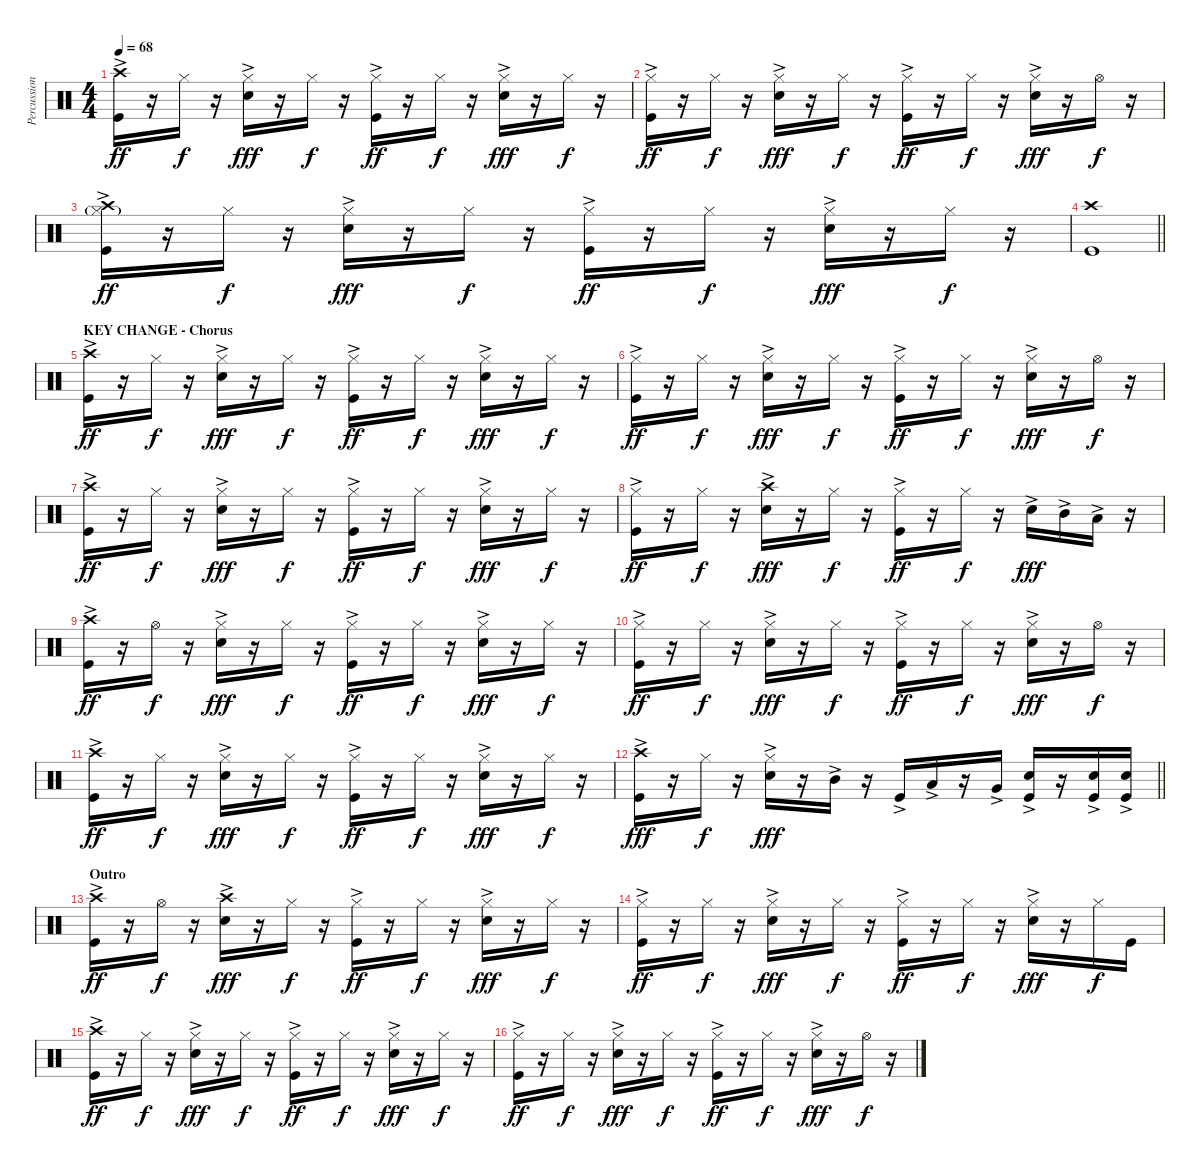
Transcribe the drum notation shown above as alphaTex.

\track ("Percussion" "Percussion") {instrument percussion}
\staff {score}
\articulation defaults
\ts (4 4)
\tempo 68
\clef neutral
\ks c
("Crash high (hit)" "Kick (hit)"{ac}).16{dy ff} r.16 "Hi-Hat (closed)".16{dy f} r.16 ("Hi-Hat (closed)" "Snare (hit) 2"{ac}).16{dy fff} r.16 "Hi-Hat (closed)".16{dy f} r.16 ("Hi-Hat (closed)" "Kick (hit)"{ac}).16{dy ff} r.16 "Hi-Hat (closed)".16{dy f} r.16 ("Hi-Hat (closed)" "Snare (hit) 2"{ac}).16{dy fff} r.16 "Hi-Hat (closed)".16{dy f} r.16 |
("Hi-Hat (closed)" "Kick (hit)"{ac}).16{dy ff} r.16 "Hi-Hat (closed)".16{dy f} r.16 ("Hi-Hat (closed)" "Snare (hit) 2"{ac}).16{dy fff} r.16 "Hi-Hat (closed)".16{dy f} r.16 ("Hi-Hat (closed)" "Kick (hit)"{ac}).16{dy ff} r.16 "Hi-Hat (closed)".16{dy f} r.16 ("Hi-Hat (closed)" "Snare (hit) 2"{ac}).16{dy fff} r.16 "Hi-Hat (open)".16{dy f} r.16 |
("Crash high (hit)" "Hi-Hat (closed)"{g} "Kick (hit)"{ac}).16{dy ff} r.16 "Hi-Hat (closed)".16{dy f} r.16 ("Hi-Hat (closed)" "Snare (hit) 2"{ac}).16{dy fff} r.16 "Hi-Hat (closed)".16{dy f} r.16 ("Hi-Hat (closed)" "Kick (hit)"{ac}).16{dy ff} r.16 "Hi-Hat (closed)".16{dy f} r.16 ("Hi-Hat (closed)" "Snare (hit) 2"{ac}).16{dy fff} r.16 "Hi-Hat (closed)".16{dy f} r.16 |
\barLineRight lightlight
("Crash high (hit)" "Kick (hit)").1 |
\section ("" "KEY CHANGE - Chorus")
("Crash high (hit)" "Kick (hit)"{ac}).16{dy ff} r.16 "Hi-Hat (closed)".16{dy f} r.16 ("Hi-Hat (closed)" "Snare (hit) 2"{ac}).16{dy fff} r.16 "Hi-Hat (closed)".16{dy f} r.16 ("Hi-Hat (closed)" "Kick (hit)"{ac}).16{dy ff} r.16 "Hi-Hat (closed)".16{dy f} r.16 ("Hi-Hat (closed)" "Snare (hit) 2"{ac}).16{dy fff} r.16 "Hi-Hat (closed)".16{dy f} r.16 |
("Hi-Hat (closed)" "Kick (hit)"{ac}).16{dy ff} r.16 "Hi-Hat (closed)".16{dy f} r.16 ("Hi-Hat (closed)" "Snare (hit) 2"{ac}).16{dy fff} r.16 "Hi-Hat (closed)".16{dy f} r.16 ("Hi-Hat (closed)" "Kick (hit)"{ac}).16{dy ff} r.16 "Hi-Hat (closed)".16{dy f} r.16 ("Hi-Hat (closed)" "Snare (hit) 2"{ac}).16{dy fff} r.16 "Hi-Hat (open)".16{dy f} r.16 |
("Crash high (hit)" "Kick (hit)"{ac}).16{dy ff} r.16 "Hi-Hat (closed)".16{dy f} r.16 ("Hi-Hat (closed)" "Snare (hit) 2"{ac}).16{dy fff} r.16 "Hi-Hat (closed)".16{dy f} r.16 ("Hi-Hat (closed)" "Kick (hit)"{ac}).16{dy ff} r.16 "Hi-Hat (closed)".16{dy f} r.16 ("Hi-Hat (closed)" "Snare (hit) 2"{ac}).16{dy fff} r.16 "Hi-Hat (closed)".16{dy f} r.16 |
("Hi-Hat (closed)" "Kick (hit)"{ac}).16{dy ff} r.16 "Hi-Hat (closed)".16{dy f} r.16 ("Crash high (hit)" "Snare (hit) 2"{ac}).16{dy fff} r.16 "Hi-Hat (closed)".16{dy f} r.16 ("Hi-Hat (closed)" "Kick (hit)"{ac}).16{dy ff} r.16 "Hi-Hat (closed)".16{dy f} r.16 "Snare (hit) 2"{ac}.16{dy fff} "Mid Tom (hit)"{ac}.16 "Low Tom (hit)"{ac}.16 r.16 |
("Crash high (hit)" "Kick (hit)"{ac}).16{dy ff} r.16 "Hi-Hat (open)".16{dy f} r.16 ("Hi-Hat (closed)" "Snare (hit) 2"{ac}).16{dy fff} r.16 "Hi-Hat (closed)".16{dy f} r.16 ("Hi-Hat (closed)" "Kick (hit)"{ac}).16{dy ff} r.16 "Hi-Hat (closed)".16{dy f} r.16 ("Hi-Hat (closed)" "Snare (hit) 2"{ac}).16{dy fff} r.16 "Hi-Hat (closed)".16{dy f} r.16 |
("Hi-Hat (closed)" "Kick (hit)"{ac}).16{dy ff} r.16 "Hi-Hat (closed)".16{dy f} r.16 ("Hi-Hat (closed)" "Snare (hit) 2"{ac}).16{dy fff} r.16 "Hi-Hat (closed)".16{dy f} r.16 ("Hi-Hat (closed)" "Kick (hit)"{ac}).16{dy ff} r.16 "Hi-Hat (closed)".16{dy f} r.16 ("Hi-Hat (closed)" "Snare (hit) 2"{ac}).16{dy fff} r.16 "Hi-Hat (open)".16{dy f} r.16 |
("Crash high (hit)" "Kick (hit)"{ac}).16{dy ff} r.16 "Hi-Hat (closed)".16{dy f} r.16 ("Hi-Hat (closed)" "Snare (hit) 2"{ac}).16{dy fff} r.16 "Hi-Hat (closed)".16{dy f} r.16 ("Hi-Hat (closed)" "Kick (hit)"{ac}).16{dy ff} r.16 "Hi-Hat (closed)".16{dy f} r.16 ("Hi-Hat (closed)" "Snare (hit) 2"{ac}).16{dy fff} r.16 "Hi-Hat (closed)".16{dy f} r.16 |
\barLineRight lightlight
("Crash high (hit)" "Kick (hit)"{ac}).16{dy fff} r.16 "Hi-Hat (closed)".16{dy f} r.16 ("Hi-Hat (closed)" "Snare (hit) 2"{ac}).16{dy fff} r.16 "Mid Tom (hit)"{ac}.16 r.16 "Kick (hit)"{ac}.16 "Low Tom (hit)"{ac}.16 r.16 "Very Low Tom (hit)"{ac}.16 ("Snare (hit) 2"{ac} "Kick (hit)").16 r.16 ("Snare (hit) 2"{ac} "Kick (hit)").16 ("Snare (hit) 2"{ac} "Kick (hit)").16 |
\section ("" "Outro")
("Crash high (hit)" "Kick (hit)"{ac}).16{dy ff} r.16 "Hi-Hat (open)".16{dy f} r.16 ("Crash high (hit)" "Snare (hit) 2"{ac}).16{dy fff} r.16 "Hi-Hat (closed)".16{dy f} r.16 ("Hi-Hat (closed)" "Kick (hit)"{ac}).16{dy ff} r.16 "Hi-Hat (closed)".16{dy f} r.16 ("Hi-Hat (closed)" "Snare (hit) 2"{ac}).16{dy fff} r.16 "Hi-Hat (closed)".16{dy f} r.16 |
("Hi-Hat (closed)" "Kick (hit)"{ac}).16{dy ff} r.16 "Hi-Hat (closed)".16{dy f} r.16 ("Hi-Hat (closed)" "Snare (hit) 2"{ac}).16{dy fff} r.16 "Hi-Hat (closed)".16{dy f} r.16 ("Hi-Hat (closed)" "Kick (hit)"{ac}).16{dy ff} r.16 "Hi-Hat (closed)".16{dy f} r.16 ("Hi-Hat (closed)" "Snare (hit) 2"{ac}).16{dy fff} r.16 "Hi-Hat (closed)".16{dy f} "Kick (hit)".16 |
("Crash high (hit)" "Kick (hit)"{ac}).16{dy ff} r.16 "Hi-Hat (closed)".16{dy f} r.16 ("Hi-Hat (closed)" "Snare (hit) 2"{ac}).16{dy fff} r.16 "Hi-Hat (closed)".16{dy f} r.16 ("Hi-Hat (closed)" "Kick (hit)"{ac}).16{dy ff} r.16 "Hi-Hat (closed)".16{dy f} r.16 ("Hi-Hat (closed)" "Snare (hit) 2"{ac}).16{dy fff} r.16 "Hi-Hat (closed)".16{dy f} r.16 |
("Hi-Hat (closed)" "Kick (hit)"{ac}).16{dy ff} r.16 "Hi-Hat (closed)".16{dy f} r.16 ("Hi-Hat (closed)" "Snare (hit) 2"{ac}).16{dy fff} r.16 "Hi-Hat (closed)".16{dy f} r.16 ("Hi-Hat (closed)" "Kick (hit)"{ac}).16{dy ff} r.16 "Hi-Hat (closed)".16{dy f} r.16 ("Hi-Hat (closed)" "Snare (hit) 2"{ac}).16{dy fff} r.16 "Hi-Hat (open)".16{dy f} r.16
